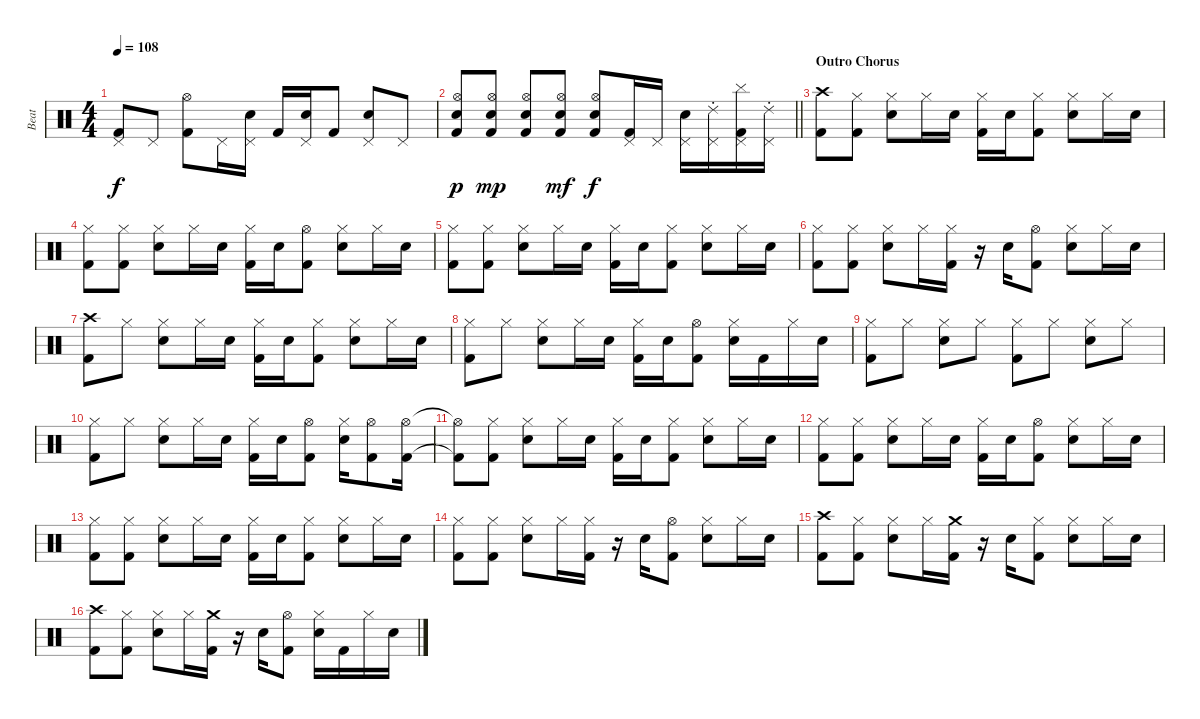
\track ("Beat" "Beat") {instrument percussion}
\staff {score}
\articulation defaults
\ts (4 4)
\tempo 108
\clef neutral
\ks c
("Pedal Hi-Hat (hit)" "Kick (hit) 2").8{dy f} "Pedal Hi-Hat (hit)".8 ("Hi-Hat (open)" "Kick (hit) 2").8 "Pedal Hi-Hat (hit)".16 ("Pedal Hi-Hat (hit)" "Snare (hit) 2").16 "Kick (hit) 2".16 ("Pedal Hi-Hat (hit)" "Snare (hit) 2").16 "Kick (hit) 2".8 ("Pedal Hi-Hat (hit)" "Snare (hit) 2").8 "Pedal Hi-Hat (hit)".8 |
\barLineRight lightlight
("Hi-Hat (open)" "Snare (hit) 2" "Kick (hit) 2").8{dy p} ("Hi-Hat (open)" "Snare (hit) 2" "Kick (hit) 2").8{dy mp} ("Hi-Hat (open)" "Snare (hit) 2" "Kick (hit) 2").8 ("Hi-Hat (open)" "Snare (hit) 2" "Kick (hit) 2").8{dy mf} ("Hi-Hat (open)" "Snare (hit) 2" "Kick (hit) 2").8{dy f} ("Pedal Hi-Hat (hit)" "Kick (hit) 2").16 "Pedal Hi-Hat (hit)".16 ("Pedal Hi-Hat (hit)" "Snare (hit) 2").16 ("Pedal Hi-Hat (hit)" "Ride (choke) 2").16 ("Pedal Hi-Hat (hit)" "Cymbal (hit)" "Kick (hit) 2").16 ("Pedal Hi-Hat (hit)" "Ride (choke) 2").16 |
\section ("" "Outro Chorus")
("Crash high (hit)" "Kick (hit) 2").8 ("Hi-Hat (closed)" "Kick (hit) 2").8 ("Hi-Hat (closed)" "Snare (hit) 2").8 "Hi-Hat (closed)".16 "Snare (hit) 2".16 ("Hi-Hat (closed)" "Kick (hit) 2").16 "Snare (hit) 2".16 ("Hi-Hat (closed)" "Kick (hit) 2").8 ("Hi-Hat (closed)" "Snare (hit) 2").8 "Hi-Hat (closed)".16 "Snare (hit) 2".16 |
("Hi-Hat (closed)" "Kick (hit) 2").8 ("Hi-Hat (closed)" "Kick (hit) 2").8 ("Hi-Hat (closed)" "Snare (hit) 2").8 "Hi-Hat (closed)".16 "Snare (hit) 2".16 ("Hi-Hat (closed)" "Kick (hit) 2").16 "Snare (hit) 2".16 ("Hi-Hat (open)" "Kick (hit) 2").8 ("Hi-Hat (closed)" "Snare (hit) 2").8 "Hi-Hat (closed)".16 "Snare (hit) 2".16 |
("Hi-Hat (closed)" "Kick (hit) 2").8 ("Hi-Hat (closed)" "Kick (hit) 2").8 ("Hi-Hat (closed)" "Snare (hit) 2").8 "Hi-Hat (closed)".16 "Snare (hit) 2".16 ("Hi-Hat (closed)" "Kick (hit) 2").16 "Snare (hit) 2".16 ("Hi-Hat (closed)" "Kick (hit) 2").8 ("Hi-Hat (closed)" "Snare (hit) 2").8 "Hi-Hat (closed)".16 "Snare (hit) 2".16 |
("Hi-Hat (closed)" "Kick (hit) 2").8 ("Hi-Hat (closed)" "Kick (hit) 2").8 ("Hi-Hat (closed)" "Snare (hit) 2").8 "Hi-Hat (closed)".16 ("Hi-Hat (closed)" "Kick (hit) 2").16 r.16 "Snare (hit) 2".16 ("Hi-Hat (open)" "Kick (hit) 2").8 ("Hi-Hat (closed)" "Snare (hit) 2").8 "Hi-Hat (closed)".16 "Snare (hit) 2".16 |
("Crash high (hit)" "Kick (hit) 2").8 "Hi-Hat (closed)".8 ("Hi-Hat (closed)" "Snare (hit) 2").8 "Hi-Hat (closed)".16 "Snare (hit) 2".16 ("Hi-Hat (closed)" "Kick (hit) 2").16 "Snare (hit) 2".16 ("Hi-Hat (closed)" "Kick (hit) 2").8 ("Hi-Hat (closed)" "Snare (hit) 2").8 "Hi-Hat (closed)".16 "Snare (hit) 2".16 |
("Hi-Hat (closed)" "Kick (hit) 2").8 "Hi-Hat (closed)".8 ("Hi-Hat (closed)" "Snare (hit) 2").8 "Hi-Hat (closed)".16 "Snare (hit) 2".16 ("Hi-Hat (closed)" "Kick (hit) 2").16 "Snare (hit) 2".16 ("Hi-Hat (open)" "Kick (hit) 2").8 ("Hi-Hat (closed)" "Snare (hit) 2").16 "Kick (hit) 2".16 "Hi-Hat (closed)".16 "Snare (hit) 2".16 |
("Hi-Hat (closed)" "Kick (hit) 2").8 "Hi-Hat (closed)".8 ("Hi-Hat (closed)" "Snare (hit) 2").8 "Hi-Hat (closed)".8 ("Hi-Hat (closed)" "Kick (hit) 2").8 "Hi-Hat (closed)".8 ("Hi-Hat (closed)" "Snare (hit) 2").8 "Hi-Hat (closed)".8 |
("Hi-Hat (closed)" "Kick (hit) 2").8 "Hi-Hat (closed)".8 ("Hi-Hat (closed)" "Snare (hit) 2").8 "Hi-Hat (closed)".16 "Snare (hit) 2".16 ("Hi-Hat (closed)" "Kick (hit) 2").16 "Snare (hit) 2".16 ("Hi-Hat (open)" "Kick (hit) 2").8 ("Hi-Hat (closed)" "Snare (hit) 2").16 ("Hi-Hat (open)" "Kick (hit) 2").8 ("Hi-Hat (open)" "Kick (hit) 2").16 |
("Hi-Hat (open)"{t} "Kick (hit) 2"{t}).8 ("Hi-Hat (closed)" "Kick (hit) 2").8 ("Hi-Hat (closed)" "Snare (hit) 2").8 "Hi-Hat (closed)".16 "Snare (hit) 2".16 ("Hi-Hat (closed)" "Kick (hit) 2").16 "Snare (hit) 2".16 ("Hi-Hat (closed)" "Kick (hit) 2").8 ("Hi-Hat (closed)" "Snare (hit) 2").8 "Hi-Hat (closed)".16 "Snare (hit) 2".16 |
("Hi-Hat (closed)" "Kick (hit) 2").8 ("Hi-Hat (closed)" "Kick (hit) 2").8 ("Hi-Hat (closed)" "Snare (hit) 2").8 "Hi-Hat (closed)".16 "Snare (hit) 2".16 ("Hi-Hat (closed)" "Kick (hit) 2").16 "Snare (hit) 2".16 ("Hi-Hat (open)" "Kick (hit) 2").8 ("Hi-Hat (closed)" "Snare (hit) 2").8 "Hi-Hat (closed)".16 "Snare (hit) 2".16 |
("Hi-Hat (closed)" "Kick (hit) 2").8 ("Hi-Hat (closed)" "Kick (hit) 2").8 ("Hi-Hat (closed)" "Snare (hit) 2").8 "Hi-Hat (closed)".16 "Snare (hit) 2".16 ("Hi-Hat (closed)" "Kick (hit) 2").16 "Snare (hit) 2".16 ("Hi-Hat (closed)" "Kick (hit) 2").8 ("Hi-Hat (closed)" "Snare (hit) 2").8 "Hi-Hat (closed)".16 "Snare (hit) 2".16 |
("Hi-Hat (closed)" "Kick (hit) 2").8 ("Hi-Hat (closed)" "Kick (hit) 2").8 ("Hi-Hat (closed)" "Snare (hit) 2").8 "Hi-Hat (closed)".16 ("Hi-Hat (closed)" "Kick (hit) 2").16 r.16 "Snare (hit) 2".16 ("Hi-Hat (open)" "Kick (hit) 2").8 ("Hi-Hat (closed)" "Snare (hit) 2").8 "Hi-Hat (closed)".16 "Snare (hit) 2".16 |
("Crash high (hit)" "Kick (hit) 2").8 ("Hi-Hat (closed)" "Kick (hit) 2").8 ("Hi-Hat (closed)" "Snare (hit) 2").8 "Hi-Hat (closed)".16 ("Crash medium (hit)" "Kick (hit) 2").16 r.16 "Snare (hit) 2".16 ("Hi-Hat (closed)" "Kick (hit) 2").8 ("Hi-Hat (closed)" "Snare (hit) 2").8 "Hi-Hat (closed)".16 "Snare (hit) 2".16 |
("Crash high (hit)" "Kick (hit) 2").8 ("Hi-Hat (closed)" "Kick (hit) 2").8 ("Hi-Hat (closed)" "Snare (hit) 2").8 "Hi-Hat (closed)".16 ("Crash medium (hit)" "Kick (hit) 2").16 r.16 "Snare (hit) 2".16 ("Hi-Hat (open)" "Kick (hit) 2").8 ("Hi-Hat (closed)" "Snare (hit) 2").16 "Kick (hit) 2".16 "Hi-Hat (closed)".16 "Snare (hit) 2".16
